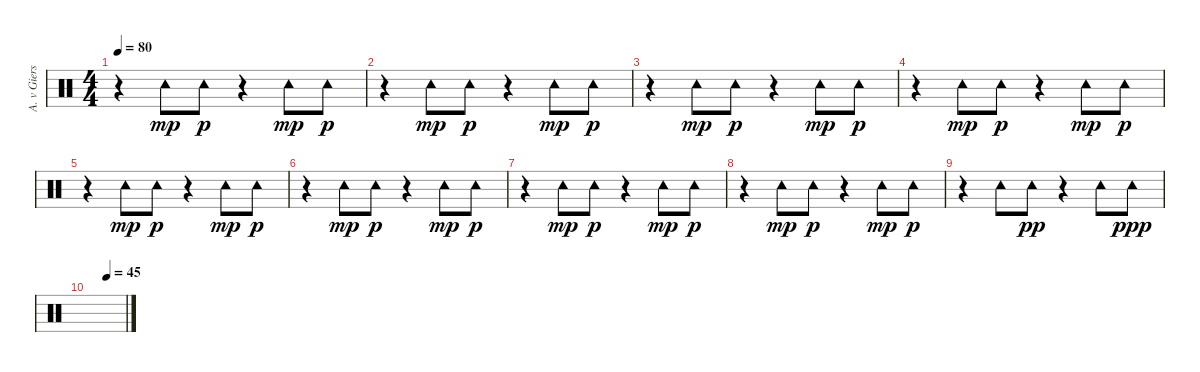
\track ("A. v Giersbergen (tambourine)" "A. v Giers") {instrument percussion}
\staff {score}
\articulation defaults
\ts (4 4)
\tempo 80
\clef neutral
\ks c
r.4{dy p} "Tambourine (hit)".8{dy mp} "Tambourine (hit)".8{dy p} r.4 "Tambourine (hit)".8{dy mp} "Tambourine (hit)".8{dy p} |
r.4 "Tambourine (hit)".8{dy mp} "Tambourine (hit)".8{dy p} r.4 "Tambourine (hit)".8{dy mp} "Tambourine (hit)".8{dy p} |
r.4 "Tambourine (hit)".8{dy mp} "Tambourine (hit)".8{dy p} r.4 "Tambourine (hit)".8{dy mp} "Tambourine (hit)".8{dy p} |
r.4 "Tambourine (hit)".8{dy mp} "Tambourine (hit)".8{dy p} r.4 "Tambourine (hit)".8{dy mp} "Tambourine (hit)".8{dy p} |
r.4 "Tambourine (hit)".8{dy mp} "Tambourine (hit)".8{dy p} r.4 "Tambourine (hit)".8{dy mp} "Tambourine (hit)".8{dy p} |
r.4 "Tambourine (hit)".8{dy mp} "Tambourine (hit)".8{dy p} r.4 "Tambourine (hit)".8{dy mp} "Tambourine (hit)".8{dy p} |
r.4 "Tambourine (hit)".8{dy mp} "Tambourine (hit)".8{dy p} r.4 "Tambourine (hit)".8{dy mp} "Tambourine (hit)".8{dy p} |
r.4 "Tambourine (hit)".8{dy mp} "Tambourine (hit)".8{dy p} r.4 "Tambourine (hit)".8{dy mp} "Tambourine (hit)".8{dy p} |
r.4 "Tambourine (hit)".8 "Tambourine (hit)".8{dy pp} r.4 "Tambourine (hit)".8 "Tambourine (hit)".8{dy ppp} |
\tempo (45 0.5)
